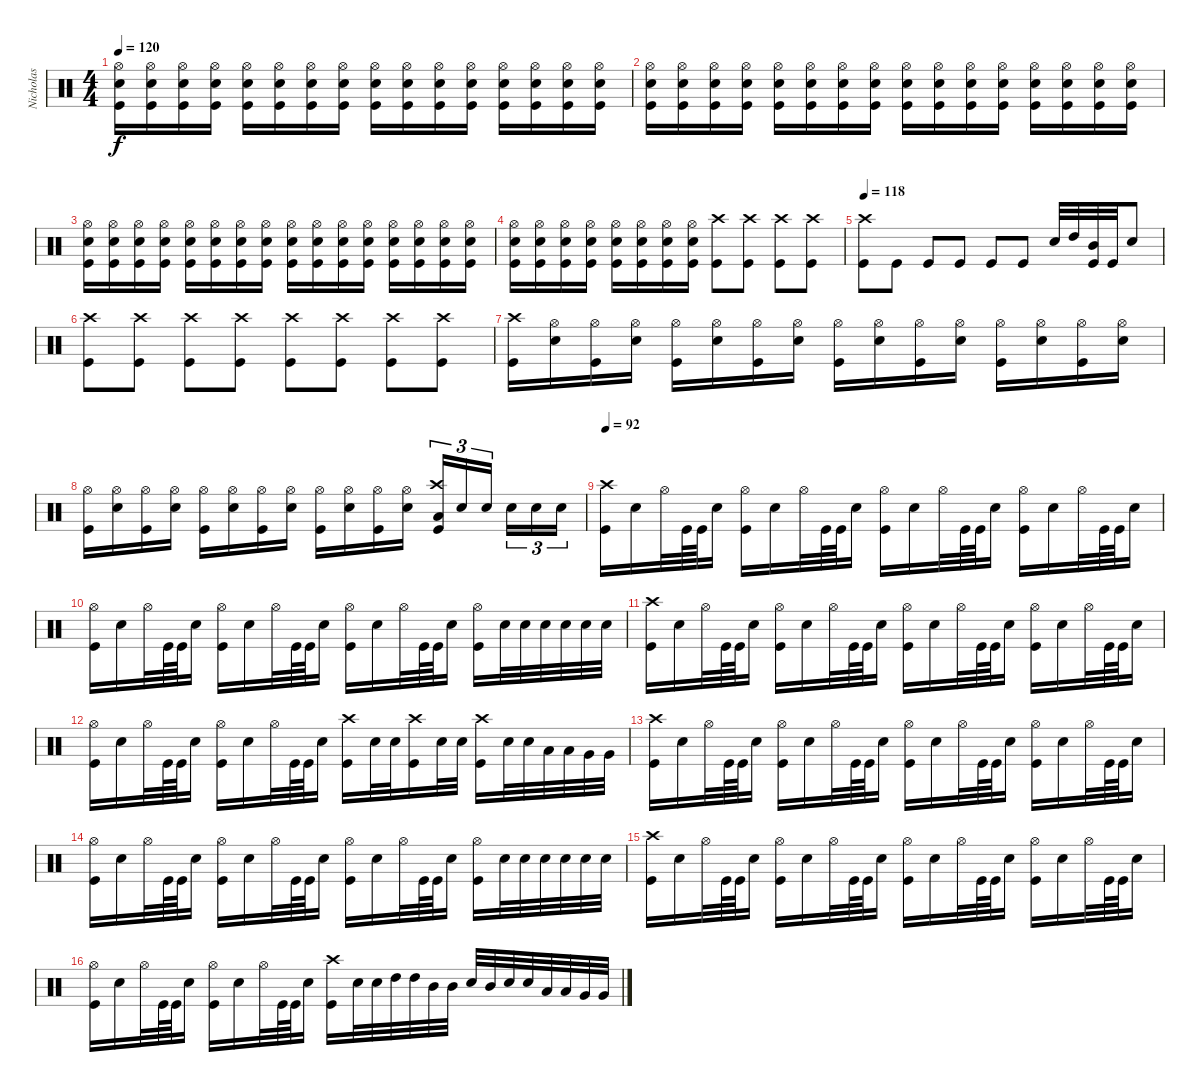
\track ("Nicholas" "Nicholas") {instrument percussion}
\staff {score}
\articulation defaults
\ts (4 4)
\tempo 120
\clef neutral
\ks c
("Hi-Hat (open)" "Electric Snare (hit)" "Kick (hit)").16{dy f} ("Hi-Hat (open)" "Electric Snare (hit)" "Kick (hit)").16 ("Hi-Hat (open)" "Electric Snare (hit)" "Kick (hit)").16 ("Hi-Hat (open)" "Electric Snare (hit)" "Kick (hit)").16 ("Hi-Hat (open)" "Electric Snare (hit)" "Kick (hit)").16 ("Hi-Hat (open)" "Electric Snare (hit)" "Kick (hit)").16 ("Hi-Hat (open)" "Electric Snare (hit)" "Kick (hit)").16 ("Hi-Hat (open)" "Electric Snare (hit)" "Kick (hit)").16 ("Hi-Hat (open)" "Electric Snare (hit)" "Kick (hit)").16 ("Hi-Hat (open)" "Electric Snare (hit)" "Kick (hit)").16 ("Hi-Hat (open)" "Electric Snare (hit)" "Kick (hit)").16 ("Hi-Hat (open)" "Electric Snare (hit)" "Kick (hit)").16 ("Hi-Hat (open)" "Electric Snare (hit)" "Kick (hit)").16 ("Hi-Hat (open)" "Electric Snare (hit)" "Kick (hit)").16 ("Hi-Hat (open)" "Electric Snare (hit)" "Kick (hit)").16 ("Hi-Hat (open)" "Electric Snare (hit)" "Kick (hit)").16 |
("Hi-Hat (open)" "Electric Snare (hit)" "Kick (hit)").16 ("Hi-Hat (open)" "Electric Snare (hit)" "Kick (hit)").16 ("Hi-Hat (open)" "Electric Snare (hit)" "Kick (hit)").16 ("Hi-Hat (open)" "Electric Snare (hit)" "Kick (hit)").16 ("Hi-Hat (open)" "Electric Snare (hit)" "Kick (hit)").16 ("Hi-Hat (open)" "Electric Snare (hit)" "Kick (hit)").16 ("Hi-Hat (open)" "Electric Snare (hit)" "Kick (hit)").16 ("Hi-Hat (open)" "Electric Snare (hit)" "Kick (hit)").16 ("Hi-Hat (open)" "Electric Snare (hit)" "Kick (hit)").16 ("Hi-Hat (open)" "Electric Snare (hit)" "Kick (hit)").16 ("Hi-Hat (open)" "Electric Snare (hit)" "Kick (hit)").16 ("Hi-Hat (open)" "Electric Snare (hit)" "Kick (hit)").16 ("Hi-Hat (open)" "Electric Snare (hit)" "Kick (hit)").16 ("Hi-Hat (open)" "Electric Snare (hit)" "Kick (hit)").16 ("Hi-Hat (open)" "Electric Snare (hit)" "Kick (hit)").16 ("Hi-Hat (open)" "Electric Snare (hit)" "Kick (hit)").16 |
("Hi-Hat (open)" "Electric Snare (hit)" "Kick (hit)").16 ("Hi-Hat (open)" "Electric Snare (hit)" "Kick (hit)").16 ("Hi-Hat (open)" "Electric Snare (hit)" "Kick (hit)").16 ("Hi-Hat (open)" "Electric Snare (hit)" "Kick (hit)").16 ("Hi-Hat (open)" "Electric Snare (hit)" "Kick (hit)").16 ("Hi-Hat (open)" "Electric Snare (hit)" "Kick (hit)").16 ("Hi-Hat (open)" "Electric Snare (hit)" "Kick (hit)").16 ("Hi-Hat (open)" "Electric Snare (hit)" "Kick (hit)").16 ("Hi-Hat (open)" "Electric Snare (hit)" "Kick (hit)").16 ("Hi-Hat (open)" "Electric Snare (hit)" "Kick (hit)").16 ("Hi-Hat (open)" "Electric Snare (hit)" "Kick (hit)").16 ("Hi-Hat (open)" "Electric Snare (hit)" "Kick (hit)").16 ("Hi-Hat (open)" "Electric Snare (hit)" "Kick (hit)").16 ("Hi-Hat (open)" "Electric Snare (hit)" "Kick (hit)").16 ("Hi-Hat (open)" "Electric Snare (hit)" "Kick (hit)").16 ("Hi-Hat (open)" "Electric Snare (hit)" "Kick (hit)").16 |
("Hi-Hat (open)" "Electric Snare (hit)" "Kick (hit)").16 ("Hi-Hat (open)" "Electric Snare (hit)" "Kick (hit)").16 ("Hi-Hat (open)" "Electric Snare (hit)" "Kick (hit)").16 ("Hi-Hat (open)" "Electric Snare (hit)" "Kick (hit)").16 ("Hi-Hat (open)" "Electric Snare (hit)" "Kick (hit)").16 ("Hi-Hat (open)" "Electric Snare (hit)" "Kick (hit)").16 ("Hi-Hat (open)" "Electric Snare (hit)" "Kick (hit)").16 ("Hi-Hat (open)" "Electric Snare (hit)" "Kick (hit)").16 ("Crash high (hit)" "Kick (hit)").8 ("Crash high (hit)" "Kick (hit)").8 ("Crash high (hit)" "Kick (hit)").8 ("Crash high (hit)" "Kick (hit)").8 |
\tempo 118
("Crash high (hit)" "Kick (hit)").8 "Kick (hit)".8 "Kick (hit)".8 "Kick (hit)".8 "Kick (hit)".8 "Kick (hit)".8 "Electric Snare (hit)".32 "High Tom (hit)".32 ("Mid Tom (hit)" "Kick (hit)").32 "Kick (hit)".32 "Electric Snare (hit)".8 |
("Crash high (hit)" "Kick (hit)").8 ("Crash high (hit)" "Kick (hit)").8 ("Crash high (hit)" "Kick (hit)").8 ("Crash high (hit)" "Kick (hit)").8 ("Crash high (hit)" "Kick (hit)").8 ("Crash high (hit)" "Kick (hit)").8 ("Crash high (hit)" "Kick (hit)").8 ("Crash high (hit)" "Kick (hit)").8 |
("Crash high (hit)" "Kick (hit)").16 ("Hi-Hat (open)" "Electric Snare (hit)").16 ("Hi-Hat (open)" "Kick (hit)").16 ("Hi-Hat (open)" "Electric Snare (hit)").16 ("Hi-Hat (open)" "Kick (hit)").16 ("Hi-Hat (open)" "Electric Snare (hit)").16 ("Hi-Hat (open)" "Kick (hit)").16 ("Hi-Hat (open)" "Electric Snare (hit)").16 ("Hi-Hat (open)" "Kick (hit)").16 ("Hi-Hat (open)" "Electric Snare (hit)").16 ("Hi-Hat (open)" "Kick (hit)").16 ("Hi-Hat (open)" "Electric Snare (hit)").16 ("Hi-Hat (open)" "Kick (hit)").16 ("Hi-Hat (open)" "Electric Snare (hit)").16 ("Hi-Hat (open)" "Kick (hit)").16 ("Hi-Hat (open)" "Electric Snare (hit)").16 |
("Hi-Hat (open)" "Kick (hit)").16 ("Hi-Hat (open)" "Electric Snare (hit)").16 ("Hi-Hat (open)" "Kick (hit)").16 ("Hi-Hat (open)" "Electric Snare (hit)").16 ("Hi-Hat (open)" "Kick (hit)").16 ("Hi-Hat (open)" "Electric Snare (hit)").16 ("Hi-Hat (open)" "Kick (hit)").16 ("Hi-Hat (open)" "Electric Snare (hit)").16 ("Hi-Hat (open)" "Kick (hit)").16 ("Hi-Hat (open)" "Electric Snare (hit)").16 ("Hi-Hat (open)" "Kick (hit)").16 ("Hi-Hat (open)" "Electric Snare (hit)").16 ("Crash high (hit)" "Low Tom (hit)" "Kick (hit)").16{tu (3 2)} "Electric Snare (hit)".16{tu (3 2)} "Electric Snare (hit)".16{tu (3 2)} "Electric Snare (hit)".16{tu (3 2)} "Electric Snare (hit)".16{tu (3 2)} "Electric Snare (hit)".16{tu (3 2)} |
\tempo 92
("Crash high (hit)" "Kick (hit)").16 "Electric Snare (hit)".16 "Hi-Hat (open)".32 "Kick (hit)".64 "Kick (hit)".64 "Electric Snare (hit)".16 ("Hi-Hat (open)" "Kick (hit)").16 "Electric Snare (hit)".16 "Hi-Hat (open)".32 "Kick (hit)".64 "Kick (hit)".64 "Electric Snare (hit)".16 ("Hi-Hat (open)" "Kick (hit)").16 "Electric Snare (hit)".16 "Hi-Hat (open)".32 "Kick (hit)".64 "Kick (hit)".64 "Electric Snare (hit)".16 ("Hi-Hat (open)" "Kick (hit)").16 "Electric Snare (hit)".16 "Hi-Hat (open)".32 "Kick (hit)".64 "Kick (hit)".64 "Electric Snare (hit)".16 |
("Hi-Hat (open)" "Kick (hit)").16 "Electric Snare (hit)".16 "Hi-Hat (open)".32 "Kick (hit)".64 "Kick (hit)".64 "Electric Snare (hit)".16 ("Hi-Hat (open)" "Kick (hit)").16 "Electric Snare (hit)".16 "Hi-Hat (open)".32 "Kick (hit)".64 "Kick (hit)".64 "Electric Snare (hit)".16 ("Hi-Hat (open)" "Kick (hit)").16 "Electric Snare (hit)".16 "Hi-Hat (open)".32 "Kick (hit)".64 "Kick (hit)".64 "Electric Snare (hit)".16 ("Hi-Hat (open)" "Kick (hit)").16 "Electric Snare (hit)".32 "Electric Snare (hit)".32 "Electric Snare (hit)".32 "Electric Snare (hit)".32 "Electric Snare (hit)".32 "Electric Snare (hit)".32 |
("Crash high (hit)" "Kick (hit)").16 "Electric Snare (hit)".16 "Hi-Hat (open)".32 "Kick (hit)".64 "Kick (hit)".64 "Electric Snare (hit)".16 ("Hi-Hat (open)" "Kick (hit)").16 "Electric Snare (hit)".16 "Hi-Hat (open)".32 "Kick (hit)".64 "Kick (hit)".64 "Electric Snare (hit)".16 ("Hi-Hat (open)" "Kick (hit)").16 "Electric Snare (hit)".16 "Hi-Hat (open)".32 "Kick (hit)".64 "Kick (hit)".64 "Electric Snare (hit)".16 ("Hi-Hat (open)" "Kick (hit)").16 "Electric Snare (hit)".16 "Hi-Hat (open)".32 "Kick (hit)".64 "Kick (hit)".64 "Electric Snare (hit)".16 |
("Hi-Hat (open)" "Kick (hit)").16 "Electric Snare (hit)".16 "Hi-Hat (open)".32 "Kick (hit)".64 "Kick (hit)".64 "Electric Snare (hit)".16 ("Hi-Hat (open)" "Kick (hit)").16 "Electric Snare (hit)".16 "Hi-Hat (open)".32 "Kick (hit)".64 "Kick (hit)".64 "Electric Snare (hit)".16 ("Crash high (hit)" "Kick (hit)").16 "Electric Snare (hit)".32 "Electric Snare (hit)".32 ("Crash high (hit)" "Kick (hit)").16 "Electric Snare (hit)".32 "Electric Snare (hit)".32 ("Crash high (hit)" "Kick (hit)").16 "Electric Snare (hit)".32 "Electric Snare (hit)".32 "Low Tom (hit)".32 "Low Tom (hit)".32 "Very Low Tom (hit)".32 "Very Low Tom (hit)".32 |
("Crash high (hit)" "Kick (hit)").16 "Electric Snare (hit)".16 "Hi-Hat (open)".32 "Kick (hit)".64 "Kick (hit)".64 "Electric Snare (hit)".16 ("Hi-Hat (open)" "Kick (hit)").16 "Electric Snare (hit)".16 "Hi-Hat (open)".32 "Kick (hit)".64 "Kick (hit)".64 "Electric Snare (hit)".16 ("Hi-Hat (open)" "Kick (hit)").16 "Electric Snare (hit)".16 "Hi-Hat (open)".32 "Kick (hit)".64 "Kick (hit)".64 "Electric Snare (hit)".16 ("Hi-Hat (open)" "Kick (hit)").16 "Electric Snare (hit)".16 "Hi-Hat (open)".32 "Kick (hit)".64 "Kick (hit)".64 "Electric Snare (hit)".16 |
("Hi-Hat (open)" "Kick (hit)").16 "Electric Snare (hit)".16 "Hi-Hat (open)".32 "Kick (hit)".64 "Kick (hit)".64 "Electric Snare (hit)".16 ("Hi-Hat (open)" "Kick (hit)").16 "Electric Snare (hit)".16 "Hi-Hat (open)".32 "Kick (hit)".64 "Kick (hit)".64 "Electric Snare (hit)".16 ("Hi-Hat (open)" "Kick (hit)").16 "Electric Snare (hit)".16 "Hi-Hat (open)".32 "Kick (hit)".64 "Kick (hit)".64 "Electric Snare (hit)".16 ("Hi-Hat (open)" "Kick (hit)").16 "Electric Snare (hit)".32 "Electric Snare (hit)".32 "Electric Snare (hit)".32 "Electric Snare (hit)".32 "Electric Snare (hit)".32 "Electric Snare (hit)".32 |
("Crash high (hit)" "Kick (hit)").16 "Electric Snare (hit)".16 "Hi-Hat (open)".32 "Kick (hit)".64 "Kick (hit)".64 "Electric Snare (hit)".16 ("Hi-Hat (open)" "Kick (hit)").16 "Electric Snare (hit)".16 "Hi-Hat (open)".32 "Kick (hit)".64 "Kick (hit)".64 "Electric Snare (hit)".16 ("Hi-Hat (open)" "Kick (hit)").16 "Electric Snare (hit)".16 "Hi-Hat (open)".32 "Kick (hit)".64 "Kick (hit)".64 "Electric Snare (hit)".16 ("Hi-Hat (open)" "Kick (hit)").16 "Electric Snare (hit)".16 "Hi-Hat (open)".32 "Kick (hit)".64 "Kick (hit)".64 "Electric Snare (hit)".16 |
("Hi-Hat (open)" "Kick (hit)").16 "Electric Snare (hit)".16 "Hi-Hat (open)".32 "Kick (hit)".64 "Kick (hit)".64 "Electric Snare (hit)".16 ("Hi-Hat (open)" "Kick (hit)").16 "Electric Snare (hit)".16 "Hi-Hat (open)".32 "Kick (hit)".64 "Kick (hit)".64 "Electric Snare (hit)".16 ("Crash high (hit)" "Kick (hit)").16 "Electric Snare (hit)".32 "Electric Snare (hit)".32 "High Tom (hit)".32 "High Tom (hit)".32 "Mid Tom (hit)".32 "Mid Tom (hit)".32 "Electric Snare (hit)".32 "Mid Tom (hit)".32 "Electric Snare (hit)".32 "Electric Snare (hit)".32 "Low Tom (hit)".32 "Low Tom (hit)".32 "Very Low Tom (hit)".32 "Very Low Tom (hit)".32
